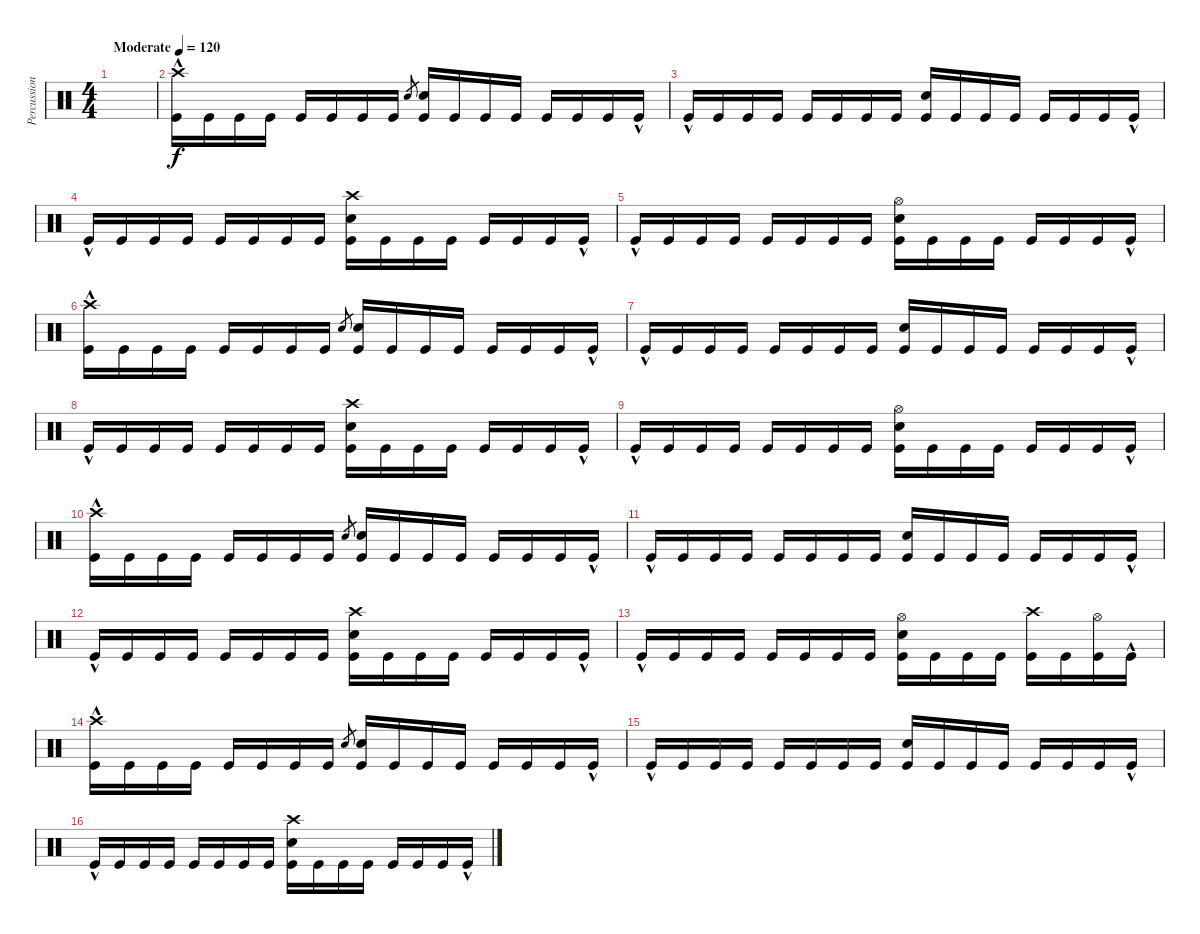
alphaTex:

\track ("Percussion" "Percussion") {instrument percussion}
\staff {score}
\articulation defaults
\ts (4 4)
\tempo (120 "Moderate")
\clef neutral
\ks c
|
("Crash high (hit)"{hac} "Kick (hit)").16 "Kick (hit)".16 "Kick (hit)".16 "Kick (hit)".16 "Kick (hit)".16 "Kick (hit)".16 "Kick (hit)".16 "Kick (hit)".16 "Snare (hit) 2".8{gr} ("Snare (hit) 2" "Kick (hit)").16 "Kick (hit)".16 "Kick (hit)".16 "Kick (hit)".16 "Kick (hit)".16 "Kick (hit)".16 "Kick (hit)".16 "Kick (hit)"{hac}.16 |
"Kick (hit)"{hac}.16 "Kick (hit)".16 "Kick (hit)".16 "Kick (hit)".16 "Kick (hit)".16 "Kick (hit)".16 "Kick (hit)".16 "Kick (hit)".16 ("Snare (hit) 2" "Kick (hit)").16 "Kick (hit)".16 "Kick (hit)".16 "Kick (hit)".16 "Kick (hit)".16 "Kick (hit)".16 "Kick (hit)".16 "Kick (hit)"{hac}.16 |
"Kick (hit)"{hac}.16 "Kick (hit)".16 "Kick (hit)".16 "Kick (hit)".16 "Kick (hit)".16 "Kick (hit)".16 "Kick (hit)".16 "Kick (hit)".16 ("Crash high (hit)" "Snare (hit) 2" "Kick (hit)").16 "Kick (hit)".16 "Kick (hit)".16 "Kick (hit)".16 "Kick (hit)".16 "Kick (hit)".16 "Kick (hit)".16 "Kick (hit)"{hac}.16 |
"Kick (hit)"{hac}.16 "Kick (hit)".16 "Kick (hit)".16 "Kick (hit)".16 "Kick (hit)".16 "Kick (hit)".16 "Kick (hit)".16 "Kick (hit)".16 ("Hi-Hat (open)" "Snare (hit) 2" "Kick (hit)").16 "Kick (hit)".16 "Kick (hit)".16 "Kick (hit)".16 "Kick (hit)".16 "Kick (hit)".16 "Kick (hit)".16 "Kick (hit)"{hac}.16 |
("Crash high (hit)"{hac} "Kick (hit)").16 "Kick (hit)".16 "Kick (hit)".16 "Kick (hit)".16 "Kick (hit)".16 "Kick (hit)".16 "Kick (hit)".16 "Kick (hit)".16 "Snare (hit) 2".8{gr} ("Snare (hit) 2" "Kick (hit)").16 "Kick (hit)".16 "Kick (hit)".16 "Kick (hit)".16 "Kick (hit)".16 "Kick (hit)".16 "Kick (hit)".16 "Kick (hit)"{hac}.16 |
"Kick (hit)"{hac}.16 "Kick (hit)".16 "Kick (hit)".16 "Kick (hit)".16 "Kick (hit)".16 "Kick (hit)".16 "Kick (hit)".16 "Kick (hit)".16 ("Snare (hit) 2" "Kick (hit)").16 "Kick (hit)".16 "Kick (hit)".16 "Kick (hit)".16 "Kick (hit)".16 "Kick (hit)".16 "Kick (hit)".16 "Kick (hit)"{hac}.16 |
"Kick (hit)"{hac}.16 "Kick (hit)".16 "Kick (hit)".16 "Kick (hit)".16 "Kick (hit)".16 "Kick (hit)".16 "Kick (hit)".16 "Kick (hit)".16 ("Crash high (hit)" "Snare (hit) 2" "Kick (hit)").16 "Kick (hit)".16 "Kick (hit)".16 "Kick (hit)".16 "Kick (hit)".16 "Kick (hit)".16 "Kick (hit)".16 "Kick (hit)"{hac}.16 |
"Kick (hit)"{hac}.16 "Kick (hit)".16 "Kick (hit)".16 "Kick (hit)".16 "Kick (hit)".16 "Kick (hit)".16 "Kick (hit)".16 "Kick (hit)".16 ("Hi-Hat (open)" "Snare (hit) 2" "Kick (hit)").16 "Kick (hit)".16 "Kick (hit)".16 "Kick (hit)".16 "Kick (hit)".16 "Kick (hit)".16 "Kick (hit)".16 "Kick (hit)"{hac}.16 |
("Crash high (hit)"{hac} "Kick (hit)").16 "Kick (hit)".16 "Kick (hit)".16 "Kick (hit)".16 "Kick (hit)".16 "Kick (hit)".16 "Kick (hit)".16 "Kick (hit)".16 "Snare (hit) 2".8{gr} ("Snare (hit) 2" "Kick (hit)").16 "Kick (hit)".16 "Kick (hit)".16 "Kick (hit)".16 "Kick (hit)".16 "Kick (hit)".16 "Kick (hit)".16 "Kick (hit)"{hac}.16 |
"Kick (hit)"{hac}.16 "Kick (hit)".16 "Kick (hit)".16 "Kick (hit)".16 "Kick (hit)".16 "Kick (hit)".16 "Kick (hit)".16 "Kick (hit)".16 ("Snare (hit) 2" "Kick (hit)").16 "Kick (hit)".16 "Kick (hit)".16 "Kick (hit)".16 "Kick (hit)".16 "Kick (hit)".16 "Kick (hit)".16 "Kick (hit)"{hac}.16 |
"Kick (hit)"{hac}.16 "Kick (hit)".16 "Kick (hit)".16 "Kick (hit)".16 "Kick (hit)".16 "Kick (hit)".16 "Kick (hit)".16 "Kick (hit)".16 ("Crash high (hit)" "Snare (hit) 2" "Kick (hit)").16 "Kick (hit)".16 "Kick (hit)".16 "Kick (hit)".16 "Kick (hit)".16 "Kick (hit)".16 "Kick (hit)".16 "Kick (hit)"{hac}.16 |
"Kick (hit)"{hac}.16 "Kick (hit)".16 "Kick (hit)".16 "Kick (hit)".16 "Kick (hit)".16 "Kick (hit)".16 "Kick (hit)".16 "Kick (hit)".16 ("Hi-Hat (open)" "Snare (hit) 2" "Kick (hit)").16 "Kick (hit)".16 "Kick (hit)".16 "Kick (hit)".16 ("Crash high (hit)" "Kick (hit)").16 "Kick (hit)".16 ("Hi-Hat (open)" "Kick (hit)").16 "Kick (hit)"{hac}.16 |
("Crash high (hit)"{hac} "Kick (hit)").16 "Kick (hit)".16 "Kick (hit)".16 "Kick (hit)".16 "Kick (hit)".16 "Kick (hit)".16 "Kick (hit)".16 "Kick (hit)".16 "Snare (hit) 2".8{gr} ("Snare (hit) 2" "Kick (hit)").16 "Kick (hit)".16 "Kick (hit)".16 "Kick (hit)".16 "Kick (hit)".16 "Kick (hit)".16 "Kick (hit)".16 "Kick (hit)"{hac}.16 |
"Kick (hit)"{hac}.16 "Kick (hit)".16 "Kick (hit)".16 "Kick (hit)".16 "Kick (hit)".16 "Kick (hit)".16 "Kick (hit)".16 "Kick (hit)".16 ("Snare (hit) 2" "Kick (hit)").16 "Kick (hit)".16 "Kick (hit)".16 "Kick (hit)".16 "Kick (hit)".16 "Kick (hit)".16 "Kick (hit)".16 "Kick (hit)"{hac}.16 |
"Kick (hit)"{hac}.16 "Kick (hit)".16 "Kick (hit)".16 "Kick (hit)".16 "Kick (hit)".16 "Kick (hit)".16 "Kick (hit)".16 "Kick (hit)".16 ("Crash high (hit)" "Snare (hit) 2" "Kick (hit)").16 "Kick (hit)".16 "Kick (hit)".16 "Kick (hit)".16 "Kick (hit)".16 "Kick (hit)".16 "Kick (hit)".16 "Kick (hit)"{hac}.16
